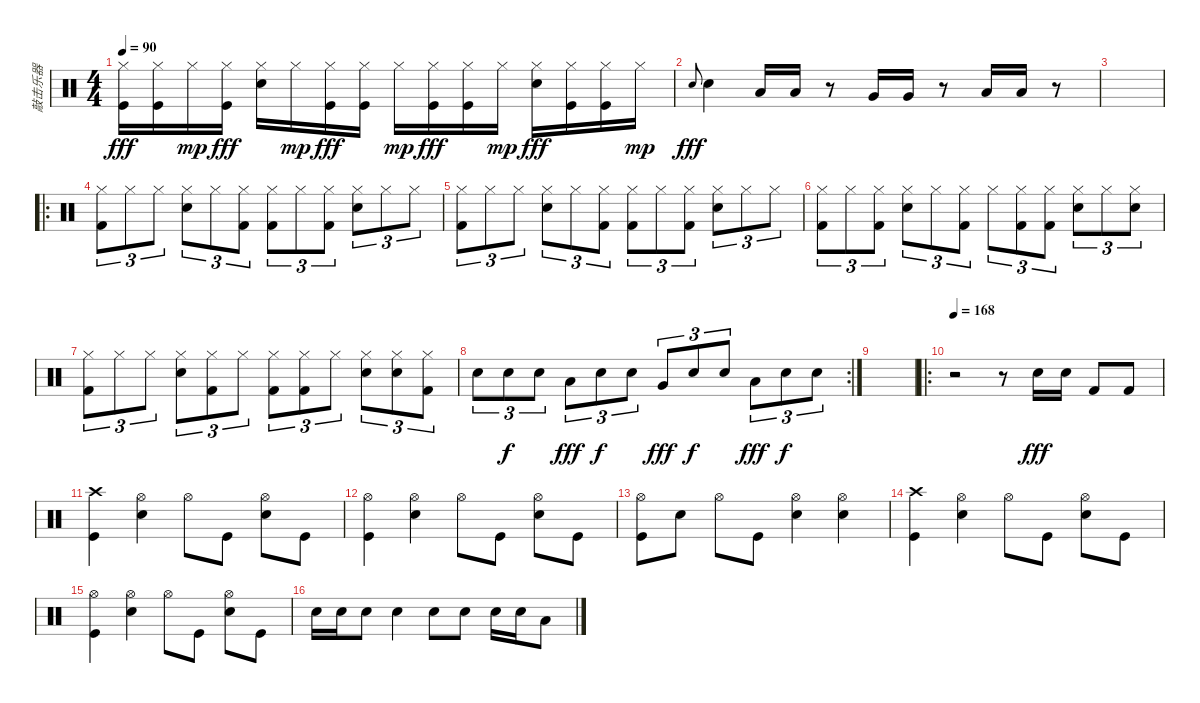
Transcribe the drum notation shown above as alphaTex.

\track ("敲击乐器" "敲击乐器") {instrument percussion}
\staff {score}
\articulation defaults
\ts (4 4)
\tempo 90
\clef neutral
\ks c
("Hi-Hat (closed)" "Kick (hit)").16{dy fff} ("Hi-Hat (closed)" "Kick (hit)").16 "Hi-Hat (closed)".16{dy mp} ("Hi-Hat (closed)" "Kick (hit)").16{dy fff} ("Hi-Hat (closed)" "Electric Snare (hit)").16 "Hi-Hat (closed)".16{dy mp} ("Hi-Hat (closed)" "Kick (hit)").16{dy fff} ("Hi-Hat (closed)" "Kick (hit)").16 "Hi-Hat (closed)".16{dy mp} ("Hi-Hat (closed)" "Kick (hit)").16{dy fff} ("Hi-Hat (closed)" "Kick (hit)").16 "Hi-Hat (closed)".16{dy mp} ("Hi-Hat (closed)" "Electric Snare (hit)").16{dy fff} ("Hi-Hat (closed)" "Kick (hit)").16 ("Hi-Hat (closed)" "Kick (hit)").16 "Hi-Hat (closed)".16{dy mp} |
"Electric Snare (hit)".8{gr onbeat dy fff} "Electric Snare (hit)".4 "Low Tom (hit)".16 "Low Tom (hit)".16 r.8 "Very Low Tom (hit)".16 "Very Low Tom (hit)".16 r.8 "Low Floor Tom (hit)".16 "Low Floor Tom (hit)".16 r.8 |
|
\ro
("Hi-Hat (closed)" "Kick (hit) 2").8{tu (3 2)} "Hi-Hat (closed)".8{tu (3 2)} "Hi-Hat (closed)".8{tu (3 2)} ("Hi-Hat (closed)" "Electric Snare (hit)").8{tu (3 2)} "Hi-Hat (closed)".8{tu (3 2)} ("Hi-Hat (closed)" "Kick (hit) 2").8{tu (3 2)} ("Hi-Hat (closed)" "Kick (hit) 2").8{tu (3 2)} "Hi-Hat (closed)".8{tu (3 2)} ("Hi-Hat (closed)" "Kick (hit) 2").8{tu (3 2)} ("Hi-Hat (closed)" "Electric Snare (hit)").8{tu (3 2)} "Hi-Hat (closed)".8{tu (3 2)} "Hi-Hat (closed)".8{tu (3 2)} |
("Hi-Hat (closed)" "Kick (hit) 2").8{tu (3 2)} "Hi-Hat (closed)".8{tu (3 2)} "Hi-Hat (closed)".8{tu (3 2)} ("Hi-Hat (closed)" "Electric Snare (hit)").8{tu (3 2)} "Hi-Hat (closed)".8{tu (3 2)} ("Hi-Hat (closed)" "Kick (hit) 2").8{tu (3 2)} ("Hi-Hat (closed)" "Kick (hit) 2").8{tu (3 2)} "Hi-Hat (closed)".8{tu (3 2)} ("Hi-Hat (closed)" "Kick (hit) 2").8{tu (3 2)} ("Hi-Hat (closed)" "Electric Snare (hit)").8{tu (3 2)} "Hi-Hat (closed)".8{tu (3 2)} "Hi-Hat (closed)".8{tu (3 2)} |
("Hi-Hat (closed)" "Kick (hit) 2").8{tu (3 2)} "Hi-Hat (closed)".8{tu (3 2)} ("Hi-Hat (closed)" "Kick (hit) 2").8{tu (3 2)} ("Hi-Hat (closed)" "Electric Snare (hit)").8{tu (3 2)} "Hi-Hat (closed)".8{tu (3 2)} ("Hi-Hat (closed)" "Kick (hit) 2").8{tu (3 2)} "Hi-Hat (closed)".8{tu (3 2)} ("Hi-Hat (closed)" "Kick (hit) 2").8{tu (3 2)} ("Hi-Hat (closed)" "Kick (hit) 2").8{tu (3 2)} ("Hi-Hat (closed)" "Electric Snare (hit)").8{tu (3 2)} "Hi-Hat (closed)".8{tu (3 2)} ("Hi-Hat (closed)" "Electric Snare (hit)").8{tu (3 2)} |
("Hi-Hat (closed)" "Kick (hit) 2").8{tu (3 2)} "Hi-Hat (closed)".8{tu (3 2)} "Hi-Hat (closed)".8{tu (3 2)} ("Hi-Hat (closed)" "Electric Snare (hit)").8{tu (3 2)} ("Hi-Hat (closed)" "Kick (hit) 2").8{tu (3 2)} "Hi-Hat (closed)".8{tu (3 2)} ("Hi-Hat (closed)" "Kick (hit) 2").8{tu (3 2)} ("Hi-Hat (closed)" "Kick (hit) 2").8{tu (3 2)} "Hi-Hat (closed)".8{tu (3 2)} ("Hi-Hat (closed)" "Electric Snare (hit)").8{tu (3 2)} ("Hi-Hat (closed)" "Electric Snare (hit)").8{tu (3 2)} ("Hi-Hat (closed)" "Kick (hit) 2").8{tu (3 2)} |
\rc 2 "Electric Snare (hit)".8{tu (3 2)} "Electric Snare (hit)".8{tu (3 2) dy f} "Electric Snare (hit)".8{tu (3 2)} "Low Tom (hit)".8{tu (3 2) dy fff} "Electric Snare (hit)".8{tu (3 2) dy f} "Electric Snare (hit)".8{tu (3 2)} "Very Low Tom (hit)".8{tu (3 2) dy fff} "Electric Snare (hit)".8{tu (3 2) dy f} "Electric Snare (hit)".8{tu (3 2)} "Low Floor Tom (hit)".8{tu (3 2) dy fff} "Electric Snare (hit)".8{tu (3 2) dy f} "Electric Snare (hit)".8{tu (3 2)}
|
|
\ro
\tempo 168
r.2 r.8 "Electric Snare (hit)".16{dy fff} "Electric Snare (hit)".16 "Kick (hit) 2".8 "Kick (hit) 2".8 |
("Crash high (hit)" "Kick (hit)").4 ("Hi-Hat (open)" "Electric Snare (hit)").4 "Hi-Hat (open)".8 "Kick (hit)".8 ("Hi-Hat (open)" "Electric Snare (hit)").8 "Kick (hit)".8 |
("Hi-Hat (open)" "Kick (hit)").4 ("Hi-Hat (open)" "Electric Snare (hit)").4 "Hi-Hat (open)".8 "Kick (hit)".8 ("Hi-Hat (open)" "Electric Snare (hit)").8 "Kick (hit)".8 |
("Hi-Hat (open)" "Kick (hit)").8 "Electric Snare (hit)".8 "Hi-Hat (open)".8 "Kick (hit)".8 ("Hi-Hat (open)" "Electric Snare (hit)").4 ("Hi-Hat (open)" "Electric Snare (hit)").4 |
("Crash high (hit)" "Kick (hit)").4 ("Hi-Hat (open)" "Electric Snare (hit)").4 "Hi-Hat (open)".8 "Kick (hit)".8 ("Hi-Hat (open)" "Electric Snare (hit)").8 "Kick (hit)".8 |
("Hi-Hat (open)" "Kick (hit)").4 ("Hi-Hat (open)" "Electric Snare (hit)").4 "Hi-Hat (open)".8 "Kick (hit)".8 ("Hi-Hat (open)" "Electric Snare (hit)").8 "Kick (hit)".8 |
"Electric Snare (hit)".16 "Electric Snare (hit)".16 "Electric Snare (hit)".8 "Electric Snare (hit)".4 "Electric Snare (hit)".8 "Electric Snare (hit)".8 "Electric Snare (hit)".16 "Electric Snare (hit)".16 "Low Floor Tom (hit)".8
